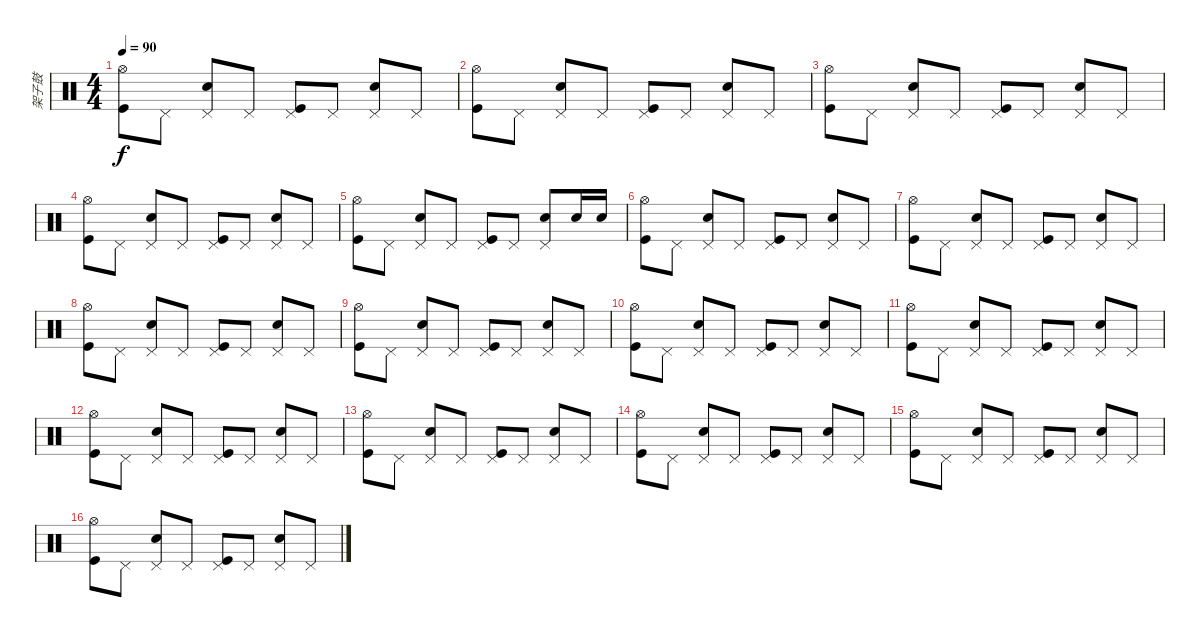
\track ("架子鼓" "架子鼓") {instrument percussion}
\staff {score}
\articulation defaults
\ts (4 4)
\tempo 90
\clef neutral
\ks c
("Hi-Hat (open)" "Kick (hit)").8{dy f} "Pedal Hi-Hat (hit)".8 ("Snare (hit) 2" "Pedal Hi-Hat (hit)").8 "Pedal Hi-Hat (hit)".8 ("Pedal Hi-Hat (hit)" "Kick (hit)").8 "Pedal Hi-Hat (hit)".8 ("Snare (hit) 2" "Pedal Hi-Hat (hit)").8 "Pedal Hi-Hat (hit)".8 |
("Hi-Hat (open)" "Kick (hit)").8 "Pedal Hi-Hat (hit)".8 ("Snare (hit) 2" "Pedal Hi-Hat (hit)").8 "Pedal Hi-Hat (hit)".8 ("Pedal Hi-Hat (hit)" "Kick (hit)").8 "Pedal Hi-Hat (hit)".8 ("Snare (hit) 2" "Pedal Hi-Hat (hit)").8 "Pedal Hi-Hat (hit)".8 |
("Hi-Hat (open)" "Kick (hit)").8 "Pedal Hi-Hat (hit)".8 ("Snare (hit) 2" "Pedal Hi-Hat (hit)").8 "Pedal Hi-Hat (hit)".8 ("Pedal Hi-Hat (hit)" "Kick (hit)").8 "Pedal Hi-Hat (hit)".8 ("Snare (hit) 2" "Pedal Hi-Hat (hit)").8 "Pedal Hi-Hat (hit)".8 |
("Hi-Hat (open)" "Kick (hit)").8 "Pedal Hi-Hat (hit)".8 ("Snare (hit) 2" "Pedal Hi-Hat (hit)").8 "Pedal Hi-Hat (hit)".8 ("Pedal Hi-Hat (hit)" "Kick (hit)").8 "Pedal Hi-Hat (hit)".8 ("Snare (hit) 2" "Pedal Hi-Hat (hit)").8 "Pedal Hi-Hat (hit)".8 |
("Hi-Hat (open)" "Kick (hit)").8 "Pedal Hi-Hat (hit)".8 ("Snare (hit) 2" "Pedal Hi-Hat (hit)").8 "Pedal Hi-Hat (hit)".8 ("Pedal Hi-Hat (hit)" "Kick (hit)").8 "Pedal Hi-Hat (hit)".8 ("Snare (hit) 2" "Pedal Hi-Hat (hit)").8 "Snare (hit) 2".16 "Snare (hit) 2".16 |
("Hi-Hat (open)" "Kick (hit)").8 "Pedal Hi-Hat (hit)".8 ("Snare (hit) 2" "Pedal Hi-Hat (hit)").8 "Pedal Hi-Hat (hit)".8 ("Pedal Hi-Hat (hit)" "Kick (hit)").8 "Pedal Hi-Hat (hit)".8 ("Snare (hit) 2" "Pedal Hi-Hat (hit)").8 "Pedal Hi-Hat (hit)".8 |
("Hi-Hat (open)" "Kick (hit)").8 "Pedal Hi-Hat (hit)".8 ("Snare (hit) 2" "Pedal Hi-Hat (hit)").8 "Pedal Hi-Hat (hit)".8 ("Pedal Hi-Hat (hit)" "Kick (hit)").8 "Pedal Hi-Hat (hit)".8 ("Snare (hit) 2" "Pedal Hi-Hat (hit)").8 "Pedal Hi-Hat (hit)".8 |
("Hi-Hat (open)" "Kick (hit)").8 "Pedal Hi-Hat (hit)".8 ("Snare (hit) 2" "Pedal Hi-Hat (hit)").8 "Pedal Hi-Hat (hit)".8 ("Pedal Hi-Hat (hit)" "Kick (hit)").8 "Pedal Hi-Hat (hit)".8 ("Snare (hit) 2" "Pedal Hi-Hat (hit)").8 "Pedal Hi-Hat (hit)".8 |
("Hi-Hat (open)" "Kick (hit)").8 "Pedal Hi-Hat (hit)".8 ("Snare (hit) 2" "Pedal Hi-Hat (hit)").8 "Pedal Hi-Hat (hit)".8 ("Pedal Hi-Hat (hit)" "Kick (hit)").8 "Pedal Hi-Hat (hit)".8 ("Snare (hit) 2" "Pedal Hi-Hat (hit)").8 "Pedal Hi-Hat (hit)".8 |
("Hi-Hat (open)" "Kick (hit)").8 "Pedal Hi-Hat (hit)".8 ("Snare (hit) 2" "Pedal Hi-Hat (hit)").8 "Pedal Hi-Hat (hit)".8 ("Pedal Hi-Hat (hit)" "Kick (hit)").8 "Pedal Hi-Hat (hit)".8 ("Snare (hit) 2" "Pedal Hi-Hat (hit)").8 "Pedal Hi-Hat (hit)".8 |
("Hi-Hat (open)" "Kick (hit)").8 "Pedal Hi-Hat (hit)".8 ("Snare (hit) 2" "Pedal Hi-Hat (hit)").8 "Pedal Hi-Hat (hit)".8 ("Pedal Hi-Hat (hit)" "Kick (hit)").8 "Pedal Hi-Hat (hit)".8 ("Snare (hit) 2" "Pedal Hi-Hat (hit)").8 "Pedal Hi-Hat (hit)".8 |
("Hi-Hat (open)" "Kick (hit)").8 "Pedal Hi-Hat (hit)".8 ("Snare (hit) 2" "Pedal Hi-Hat (hit)").8 "Pedal Hi-Hat (hit)".8 ("Pedal Hi-Hat (hit)" "Kick (hit)").8 "Pedal Hi-Hat (hit)".8 ("Snare (hit) 2" "Pedal Hi-Hat (hit)").8 "Pedal Hi-Hat (hit)".8 |
("Hi-Hat (open)" "Kick (hit)").8 "Pedal Hi-Hat (hit)".8 ("Snare (hit) 2" "Pedal Hi-Hat (hit)").8 "Pedal Hi-Hat (hit)".8 ("Pedal Hi-Hat (hit)" "Kick (hit)").8 "Pedal Hi-Hat (hit)".8 ("Snare (hit) 2" "Pedal Hi-Hat (hit)").8 "Pedal Hi-Hat (hit)".8 |
("Hi-Hat (open)" "Kick (hit)").8 "Pedal Hi-Hat (hit)".8 ("Snare (hit) 2" "Pedal Hi-Hat (hit)").8 "Pedal Hi-Hat (hit)".8 ("Pedal Hi-Hat (hit)" "Kick (hit)").8 "Pedal Hi-Hat (hit)".8 ("Snare (hit) 2" "Pedal Hi-Hat (hit)").8 "Pedal Hi-Hat (hit)".8 |
("Hi-Hat (open)" "Kick (hit)").8 "Pedal Hi-Hat (hit)".8 ("Snare (hit) 2" "Pedal Hi-Hat (hit)").8 "Pedal Hi-Hat (hit)".8 ("Pedal Hi-Hat (hit)" "Kick (hit)").8 "Pedal Hi-Hat (hit)".8 ("Snare (hit) 2" "Pedal Hi-Hat (hit)").8 "Pedal Hi-Hat (hit)".8 |
("Hi-Hat (open)" "Kick (hit)").8 "Pedal Hi-Hat (hit)".8 ("Snare (hit) 2" "Pedal Hi-Hat (hit)").8 "Pedal Hi-Hat (hit)".8 ("Pedal Hi-Hat (hit)" "Kick (hit)").8 "Pedal Hi-Hat (hit)".8 ("Snare (hit) 2" "Pedal Hi-Hat (hit)").8 "Pedal Hi-Hat (hit)".8
